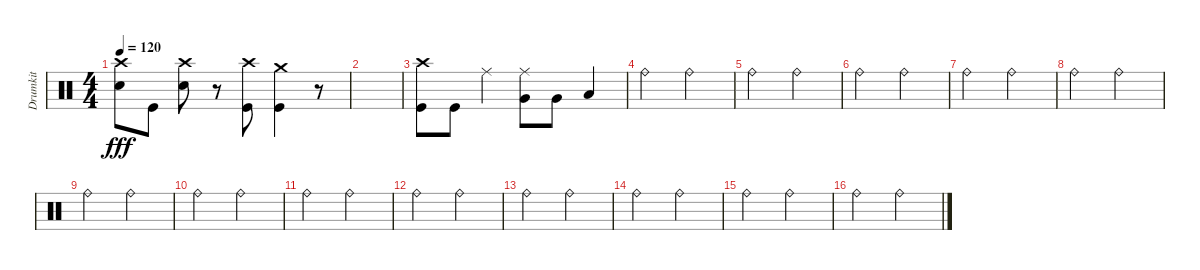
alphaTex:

\track ("Drumkit" "Drumkit") {instrument percussion}
\staff {score}
\articulation defaults
\ts (4 4)
\tempo 120
\clef neutral
\ks c
("Snare (hit) 2" "Crash high (hit)").8{dy fff} "Kick (hit)".8 ("Crash high (hit)" "Snare (hit) 2").8 r.8 ("Kick (hit)" "Crash high (hit)").8 ("Kick (hit)" "Crash medium (hit)").4 r.8 |
|
("Kick (hit)" "Crash high (hit)").8 "Kick (hit)".8 "Ride (middle)".4 ("Ride (middle)" "Very Low Tom (hit)").8 "Very Low Tom (hit)".8 "Low Tom (hit)".4 |
"Ride (bell)".2 "Ride (bell)".2 |
"Ride (bell)".2 "Ride (bell)".2 |
"Ride (bell)".2 "Ride (bell)".2 |
"Ride (bell)".2 "Ride (bell)".2 |
"Ride (bell)".2 "Ride (bell)".2 |
"Ride (bell)".2 "Ride (bell)".2 |
"Ride (bell)".2 "Ride (bell)".2 |
"Ride (bell)".2 "Ride (bell)".2 |
"Ride (bell)".2 "Ride (bell)".2 |
"Ride (bell)".2 "Ride (bell)".2 |
"Ride (bell)".2 "Ride (bell)".2 |
"Ride (bell)".2 "Ride (bell)".2 |
"Ride (bell)".2 "Ride (bell)".2
